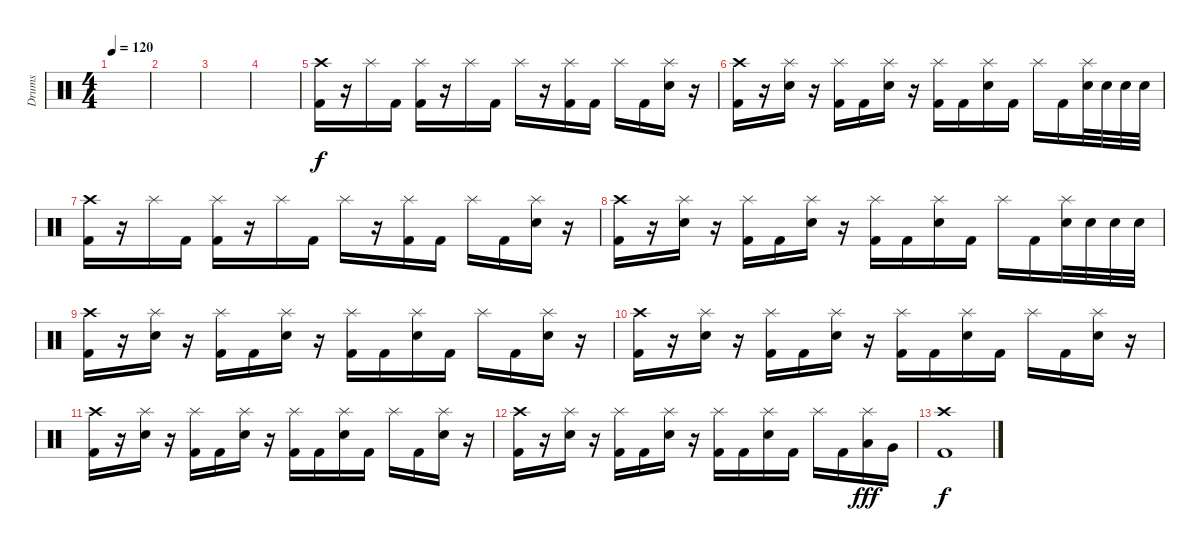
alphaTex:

\track ("Drums" "Drums") {instrument percussion}
\staff {score}
\articulation defaults
\ts (4 4)
\tempo 120
\clef neutral
\ks c
|
|
|
|
("Crash high (hit)" "Kick (hit) 2").16 r.16 "Splash (hit)".16 "Kick (hit) 2".16 ("Splash (hit)" "Kick (hit) 2").16 r.16 "Splash (hit)".16 "Kick (hit) 2".16 "Splash (hit)".16 r.16 ("Splash (hit)" "Kick (hit) 2").16 "Kick (hit) 2".16 "Splash (hit)".16 "Kick (hit) 2".16 ("Splash (hit)" "Electric Snare (hit)").16 r.16 |
("Crash high (hit)" "Kick (hit) 2").16 r.16 ("Splash (hit)" "Electric Snare (hit)").16 r.16 ("Splash (hit)" "Kick (hit) 2").16 "Kick (hit) 2".16 ("Splash (hit)" "Electric Snare (hit)").16 r.16 ("Splash (hit)" "Kick (hit) 2").16 "Kick (hit) 2".16 ("Splash (hit)" "Electric Snare (hit)").16 "Kick (hit) 2".16 "Splash (hit)".16 "Kick (hit) 2".16 ("Splash (hit)" "Electric Snare (hit)").32 "Electric Snare (hit)".32 "Electric Snare (hit)".32 "Electric Snare (hit)".32 |
("Crash high (hit)" "Kick (hit) 2").16 r.16 "Splash (hit)".16 "Kick (hit) 2".16 ("Splash (hit)" "Kick (hit) 2").16 r.16 "Splash (hit)".16 "Kick (hit) 2".16 "Splash (hit)".16 r.16 ("Splash (hit)" "Kick (hit) 2").16 "Kick (hit) 2".16 "Splash (hit)".16 "Kick (hit) 2".16 ("Splash (hit)" "Electric Snare (hit)").16 r.16 |
("Crash high (hit)" "Kick (hit) 2").16 r.16 ("Splash (hit)" "Electric Snare (hit)").16 r.16 ("Splash (hit)" "Kick (hit) 2").16 "Kick (hit) 2".16 ("Splash (hit)" "Electric Snare (hit)").16 r.16 ("Splash (hit)" "Kick (hit) 2").16 "Kick (hit) 2".16 ("Splash (hit)" "Electric Snare (hit)").16 "Kick (hit) 2".16 "Splash (hit)".16 "Kick (hit) 2".16 ("Splash (hit)" "Electric Snare (hit)").32 "Electric Snare (hit)".32 "Electric Snare (hit)".32 "Electric Snare (hit)".32 |
("Crash high (hit)" "Kick (hit) 2").16 r.16 ("Splash (hit)" "Electric Snare (hit)").16 r.16 ("Splash (hit)" "Kick (hit) 2").16 "Kick (hit) 2".16 ("Splash (hit)" "Electric Snare (hit)").16 r.16 ("Splash (hit)" "Kick (hit) 2").16 "Kick (hit) 2".16 ("Splash (hit)" "Electric Snare (hit)").16 "Kick (hit) 2".16 "Splash (hit)".16 "Kick (hit) 2".16 ("Splash (hit)" "Electric Snare (hit)").16 r.16 |
("Crash high (hit)" "Kick (hit) 2").16 r.16 ("Splash (hit)" "Electric Snare (hit)").16 r.16 ("Splash (hit)" "Kick (hit) 2").16 "Kick (hit) 2".16 ("Splash (hit)" "Electric Snare (hit)").16 r.16 ("Splash (hit)" "Kick (hit) 2").16 "Kick (hit) 2".16 ("Splash (hit)" "Electric Snare (hit)").16 "Kick (hit) 2".16 "Splash (hit)".16 "Kick (hit) 2".16 ("Splash (hit)" "Electric Snare (hit)").16 r.16 |
("Crash high (hit)" "Kick (hit) 2").16 r.16 ("Splash (hit)" "Electric Snare (hit)").16 r.16 ("Splash (hit)" "Kick (hit) 2").16 "Kick (hit) 2".16 ("Splash (hit)" "Electric Snare (hit)").16 r.16 ("Splash (hit)" "Kick (hit) 2").16 "Kick (hit) 2".16 ("Splash (hit)" "Electric Snare (hit)").16 "Kick (hit) 2".16 "Splash (hit)".16 "Kick (hit) 2".16 ("Splash (hit)" "Electric Snare (hit)").16 r.16 |
("Crash high (hit)" "Kick (hit) 2").16 r.16 ("Splash (hit)" "Electric Snare (hit)").16 r.16 ("Splash (hit)" "Kick (hit) 2").16 "Kick (hit) 2".16 ("Splash (hit)" "Electric Snare (hit)").16 r.16 ("Splash (hit)" "Kick (hit) 2").16 "Kick (hit) 2".16 ("Splash (hit)" "Electric Snare (hit)").16 "Kick (hit) 2".16 "Splash (hit)".16 "Kick (hit) 2".16 ("Splash (hit)" "Low Tom (hit)").16{dy fff} "Very Low Tom (hit)".16 |
("Crash high (hit)" "Kick (hit) 2").1{dy f}
